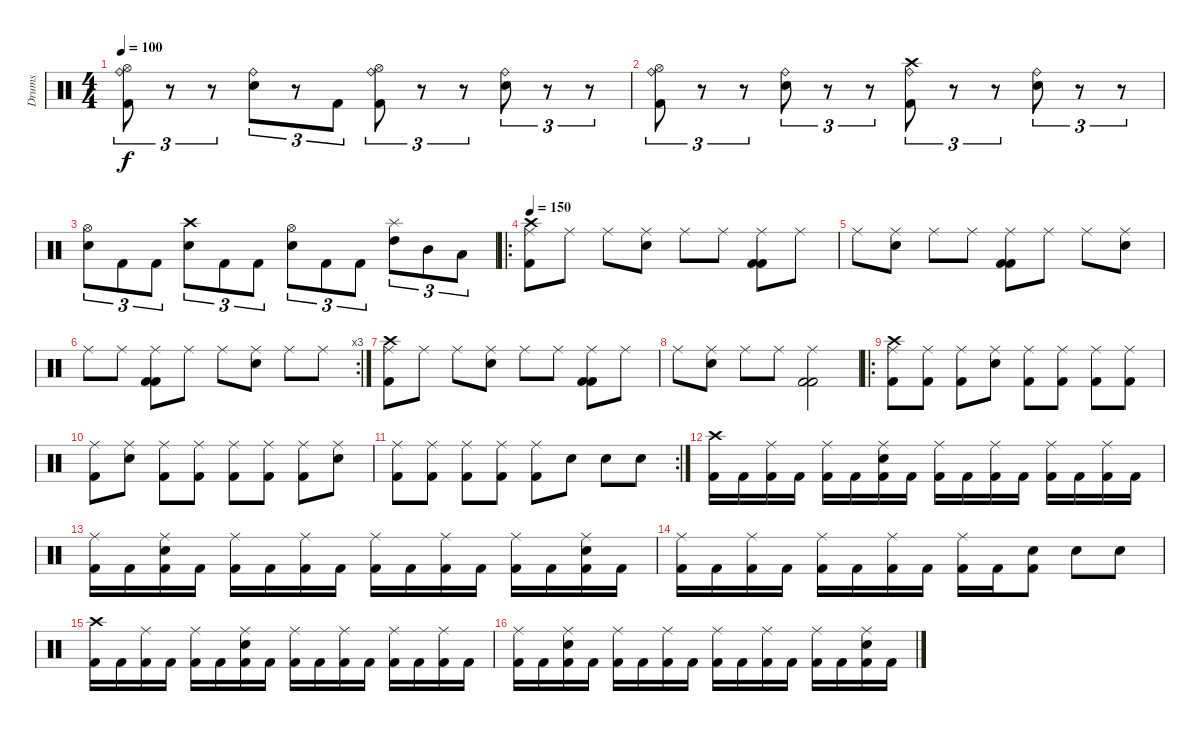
\track ("Drums" "Drums") {instrument percussion}
\staff {score}
\articulation defaults
\ts (4 4)
\tempo 100
\clef neutral
\ks c
("Hi-Hat (open)" "Ride (bell)" "Kick (hit) 2").8{tu (3 2) dy f} r.8{tu (3 2)} r.8{tu (3 2)} ("Ride (bell)" "Electric Snare (hit)").8{tu (3 2)} r.8{tu (3 2)} "Kick (hit) 2".8{tu (3 2)} ("Hi-Hat (open)" "Ride (bell)" "Kick (hit) 2").8{tu (3 2)} r.8{tu (3 2)} r.8{tu (3 2)} ("Ride (bell)" "Electric Snare (hit)").8{tu (3 2)} r.8{tu (3 2)} r.8{tu (3 2)} |
("Hi-Hat (open)" "Ride (bell)" "Kick (hit) 2").8{tu (3 2)} r.8{tu (3 2)} r.8{tu (3 2)} ("Ride (bell)" "Electric Snare (hit)").8{tu (3 2)} r.8{tu (3 2)} r.8{tu (3 2)} ("Crash high (hit)" "Ride (bell)" "Kick (hit) 2").8{tu (3 2)} r.8{tu (3 2)} r.8{tu (3 2)} ("Ride (bell)" "Electric Snare (hit)").8{tu (3 2)} r.8{tu (3 2)} r.8{tu (3 2)} |
("Hi-Hat (open)" "Electric Snare (hit)").8{tu (3 2)} "Kick (hit) 2".8{tu (3 2)} "Kick (hit) 2".8{tu (3 2)} ("Crash high (hit)" "Electric Snare (hit)").8{tu (3 2)} "Kick (hit) 2".8{tu (3 2)} "Kick (hit) 2".8{tu (3 2)} ("Hi-Hat (open)" "Electric Snare (hit)").8{tu (3 2)} "Kick (hit) 2".8{tu (3 2)} "Kick (hit) 2".8{tu (3 2)} ("Splash (hit)" "High Tom (hit)").8{tu (3 2)} "Mid Tom (hit)".8{tu (3 2)} "Low Tom (hit)".8{tu (3 2)} |
\ro
\tempo 150
("Crash high (hit)" "Kick (hit) 2" "Ride (middle)").8 "Ride (middle)".8 "Ride (middle)".8 ("Snare (hit) 2" "Ride (middle)").8 "Ride (middle)".8 "Ride (middle)".8 ("Kick (hit) 2" "Kick (hit) 2" "Ride (middle)").8 "Ride (middle)".8 |
"Ride (middle)".8 ("Snare (hit) 2" "Ride (middle)").8 "Ride (middle)".8 "Ride (middle)".8 ("Kick (hit) 2" "Kick (hit) 2" "Ride (middle)").8 "Ride (middle)".8 "Ride (middle)".8 ("Snare (hit) 2" "Ride (middle)").8 |
\rc 3 "Ride (middle)".8 "Ride (middle)".8
("Kick (hit) 2" "Kick (hit) 2" "Ride (middle)").8 "Ride (middle)".8 "Ride (middle)".8 ("Snare (hit) 2" "Ride (middle)").8 "Ride (middle)".8 "Ride (middle)".8 |
("Crash high (hit)" "Kick (hit) 2" "Ride (middle)").8 "Ride (middle)".8 "Ride (middle)".8 ("Snare (hit) 2" "Ride (middle)").8 "Ride (middle)".8 "Ride (middle)".8 ("Kick (hit) 2" "Kick (hit) 2" "Ride (middle)").8 "Ride (middle)".8 |
"Ride (middle)".8 ("Snare (hit) 2" "Ride (middle)").8 "Ride (middle)".8 "Ride (middle)".8 ("Kick (hit) 2" "Kick (hit) 2" "Ride (middle)").2 |
\ro
("Crash high (hit)" "Ride (middle)" "Kick (hit) 2").8 ("Ride (middle)" "Kick (hit) 2").8 ("Ride (middle)" "Kick (hit) 2").8 ("Ride (middle)" "Snare (hit) 2").8 ("Ride (middle)" "Kick (hit) 2").8 ("Ride (middle)" "Kick (hit) 2").8 ("Ride (middle)" "Kick (hit) 2").8 ("Ride (middle)" "Kick (hit) 2").8 |
("Ride (middle)" "Kick (hit) 2").8 ("Ride (middle)" "Snare (hit) 2").8 ("Ride (middle)" "Kick (hit) 2").8 ("Ride (middle)" "Kick (hit) 2").8 ("Ride (middle)" "Kick (hit) 2").8 ("Ride (middle)" "Kick (hit) 2").8 ("Ride (middle)" "Kick (hit) 2").8 ("Ride (middle)" "Snare (hit) 2").8 |
\rc 2
("Ride (middle)" "Kick (hit) 2").8 ("Ride (middle)" "Kick (hit) 2").8 ("Ride (middle)" "Kick (hit) 2").8 ("Ride (middle)" "Kick (hit) 2").8 ("Ride (middle)" "Kick (hit) 2").8 "Snare (hit) 2".8 "Snare (hit) 2".8 "Snare (hit) 2".8 |
("Crash high (hit)" "Kick (hit) 2").16 "Kick (hit) 2".16 ("Ride (middle)" "Kick (hit) 2").16 "Kick (hit) 2".16 ("Ride (middle)" "Kick (hit) 2").16 "Kick (hit) 2".16 ("Ride (middle)" "Snare (hit) 2" "Kick (hit) 2").16 "Kick (hit) 2".16 ("Ride (middle)" "Kick (hit) 2").16 "Kick (hit) 2".16 ("Ride (middle)" "Kick (hit) 2").16 "Kick (hit) 2".16 ("Ride (middle)" "Kick (hit) 2").16 "Kick (hit) 2".16 ("Ride (middle)" "Kick (hit) 2").16 "Kick (hit) 2".16 |
("Ride (middle)" "Kick (hit) 2").16 "Kick (hit) 2".16 ("Ride (middle)" "Snare (hit) 2" "Kick (hit) 2").16 "Kick (hit) 2".16 ("Ride (middle)" "Kick (hit) 2").16 "Kick (hit) 2".16 ("Ride (middle)" "Kick (hit) 2").16 "Kick (hit) 2".16 ("Ride (middle)" "Kick (hit) 2").16 "Kick (hit) 2".16 ("Ride (middle)" "Kick (hit) 2").16 "Kick (hit) 2".16 ("Ride (middle)" "Kick (hit) 2").16 "Kick (hit) 2".16 ("Ride (middle)" "Snare (hit) 2" "Kick (hit) 2").16 "Kick (hit) 2".16 |
("Ride (middle)" "Kick (hit) 2").16 "Kick (hit) 2".16 ("Ride (middle)" "Kick (hit) 2").16 "Kick (hit) 2".16 ("Ride (middle)" "Kick (hit) 2").16 "Kick (hit) 2".16 ("Ride (middle)" "Kick (hit) 2").16 "Kick (hit) 2".16 ("Ride (middle)" "Kick (hit) 2").16 "Kick (hit) 2".16 ("Snare (hit) 2" "Kick (hit) 2").8 "Snare (hit) 2".8 "Snare (hit) 2".8 |
("Crash high (hit)" "Kick (hit) 2").16 "Kick (hit) 2".16 ("Ride (middle)" "Kick (hit) 2").16 "Kick (hit) 2".16 ("Ride (middle)" "Kick (hit) 2").16 "Kick (hit) 2".16 ("Ride (middle)" "Snare (hit) 2" "Kick (hit) 2").16 "Kick (hit) 2".16 ("Ride (middle)" "Kick (hit) 2").16 "Kick (hit) 2".16 ("Ride (middle)" "Kick (hit) 2").16 "Kick (hit) 2".16 ("Ride (middle)" "Kick (hit) 2").16 "Kick (hit) 2".16 ("Ride (middle)" "Kick (hit) 2").16 "Kick (hit) 2".16 |
("Ride (middle)" "Kick (hit) 2").16 "Kick (hit) 2".16 ("Ride (middle)" "Snare (hit) 2" "Kick (hit) 2").16 "Kick (hit) 2".16 ("Ride (middle)" "Kick (hit) 2").16 "Kick (hit) 2".16 ("Ride (middle)" "Kick (hit) 2").16 "Kick (hit) 2".16 ("Ride (middle)" "Kick (hit) 2").16 "Kick (hit) 2".16 ("Ride (middle)" "Kick (hit) 2").16 "Kick (hit) 2".16 ("Ride (middle)" "Kick (hit) 2").16 "Kick (hit) 2".16 ("Ride (middle)" "Snare (hit) 2" "Kick (hit) 2").16 "Kick (hit) 2".16
